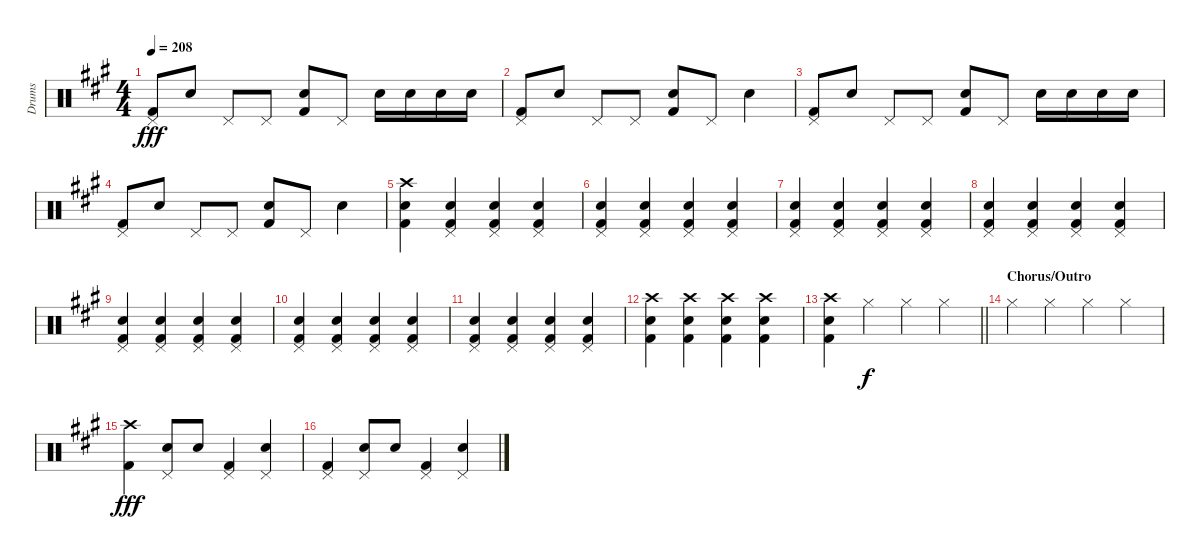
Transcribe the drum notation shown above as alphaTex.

\track ("Drums" "Drums") {instrument percussion}
\staff {score}
\articulation defaults
\ts (4 4)
\tempo 208
\clef neutral
\ks a
("Pedal Hi-Hat (hit)" "Kick (hit) 2").8{dy fff} "Snare (hit) 2".8 "Pedal Hi-Hat (hit)".8 "Pedal Hi-Hat (hit)".8 ("Snare (hit) 2" "Kick (hit) 2").8 "Pedal Hi-Hat (hit)".8 "Snare (hit) 2".16 "Snare (hit) 2".16 "Snare (hit) 2".16 "Snare (hit) 2".16 |
("Pedal Hi-Hat (hit)" "Kick (hit) 2").8 "Snare (hit) 2".8 "Pedal Hi-Hat (hit)".8 "Pedal Hi-Hat (hit)".8 ("Snare (hit) 2" "Kick (hit) 2").8 "Pedal Hi-Hat (hit)".8 "Snare (hit) 2".4 |
("Pedal Hi-Hat (hit)" "Kick (hit) 2").8 "Snare (hit) 2".8 "Pedal Hi-Hat (hit)".8 "Pedal Hi-Hat (hit)".8 ("Snare (hit) 2" "Kick (hit) 2").8 "Pedal Hi-Hat (hit)".8 "Snare (hit) 2".16 "Snare (hit) 2".16 "Snare (hit) 2".16 "Snare (hit) 2".16 |
("Pedal Hi-Hat (hit)" "Kick (hit) 2").8 "Snare (hit) 2".8 "Pedal Hi-Hat (hit)".8 "Pedal Hi-Hat (hit)".8 ("Snare (hit) 2" "Kick (hit) 2").8 "Pedal Hi-Hat (hit)".8 "Snare (hit) 2".4 |
("Crash high (hit)" "Snare (hit) 2" "Kick (hit) 2").4 ("Pedal Hi-Hat (hit)" "Snare (hit) 2" "Kick (hit) 2").4 ("Pedal Hi-Hat (hit)" "Snare (hit) 2" "Kick (hit) 2").4 ("Pedal Hi-Hat (hit)" "Snare (hit) 2" "Kick (hit) 2").4 |
("Pedal Hi-Hat (hit)" "Snare (hit) 2" "Kick (hit) 2").4 ("Pedal Hi-Hat (hit)" "Snare (hit) 2" "Kick (hit) 2").4 ("Pedal Hi-Hat (hit)" "Snare (hit) 2" "Kick (hit) 2").4 ("Pedal Hi-Hat (hit)" "Snare (hit) 2" "Kick (hit) 2").4 |
("Pedal Hi-Hat (hit)" "Snare (hit) 2" "Kick (hit) 2").4 ("Pedal Hi-Hat (hit)" "Snare (hit) 2" "Kick (hit) 2").4 ("Pedal Hi-Hat (hit)" "Snare (hit) 2" "Kick (hit) 2").4 ("Pedal Hi-Hat (hit)" "Snare (hit) 2" "Kick (hit) 2").4 |
("Pedal Hi-Hat (hit)" "Snare (hit) 2" "Kick (hit) 2").4 ("Pedal Hi-Hat (hit)" "Snare (hit) 2" "Kick (hit) 2").4 ("Pedal Hi-Hat (hit)" "Snare (hit) 2" "Kick (hit) 2").4 ("Pedal Hi-Hat (hit)" "Snare (hit) 2" "Kick (hit) 2").4 |
("Pedal Hi-Hat (hit)" "Snare (hit) 2" "Kick (hit) 2").4 ("Pedal Hi-Hat (hit)" "Snare (hit) 2" "Kick (hit) 2").4 ("Pedal Hi-Hat (hit)" "Snare (hit) 2" "Kick (hit) 2").4 ("Pedal Hi-Hat (hit)" "Snare (hit) 2" "Kick (hit) 2").4 |
("Pedal Hi-Hat (hit)" "Snare (hit) 2" "Kick (hit) 2").4 ("Pedal Hi-Hat (hit)" "Snare (hit) 2" "Kick (hit) 2").4 ("Pedal Hi-Hat (hit)" "Snare (hit) 2" "Kick (hit) 2").4 ("Pedal Hi-Hat (hit)" "Snare (hit) 2" "Kick (hit) 2").4 |
("Pedal Hi-Hat (hit)" "Snare (hit) 2" "Kick (hit) 2").4 ("Pedal Hi-Hat (hit)" "Snare (hit) 2" "Kick (hit) 2").4 ("Pedal Hi-Hat (hit)" "Snare (hit) 2" "Kick (hit) 2").4 ("Pedal Hi-Hat (hit)" "Snare (hit) 2" "Kick (hit) 2").4 |
("Crash high (hit)" "Snare (hit) 2" "Kick (hit) 2").4 ("Crash high (hit)" "Snare (hit) 2" "Kick (hit) 2").4 ("Crash high (hit)" "Snare (hit) 2" "Kick (hit) 2").4 ("Crash high (hit)" "Snare (hit) 2" "Kick (hit) 2").4 |
\barLineRight lightlight
("Crash high (hit)" "Snare (hit) 2" "Kick (hit) 2").4 "Hi-Hat (closed)".4{dy f} "Hi-Hat (closed)".4 "Hi-Hat (closed)".4 |
\section ("" "Chorus/Outro")
"Hi-Hat (closed)".4 "Hi-Hat (closed)".4 "Hi-Hat (closed)".4 "Hi-Hat (closed)".4 |
("Crash high (hit)" "Kick (hit) 2").4{dy fff} ("Pedal Hi-Hat (hit)" "Snare (hit) 2").8 "Snare (hit) 2".8 ("Pedal Hi-Hat (hit)" "Kick (hit) 2").4 ("Pedal Hi-Hat (hit)" "Snare (hit) 2").4 |
("Pedal Hi-Hat (hit)" "Kick (hit) 2").4 ("Pedal Hi-Hat (hit)" "Snare (hit) 2").8 "Snare (hit) 2".8 ("Pedal Hi-Hat (hit)" "Kick (hit) 2").4 ("Pedal Hi-Hat (hit)" "Snare (hit) 2").4
